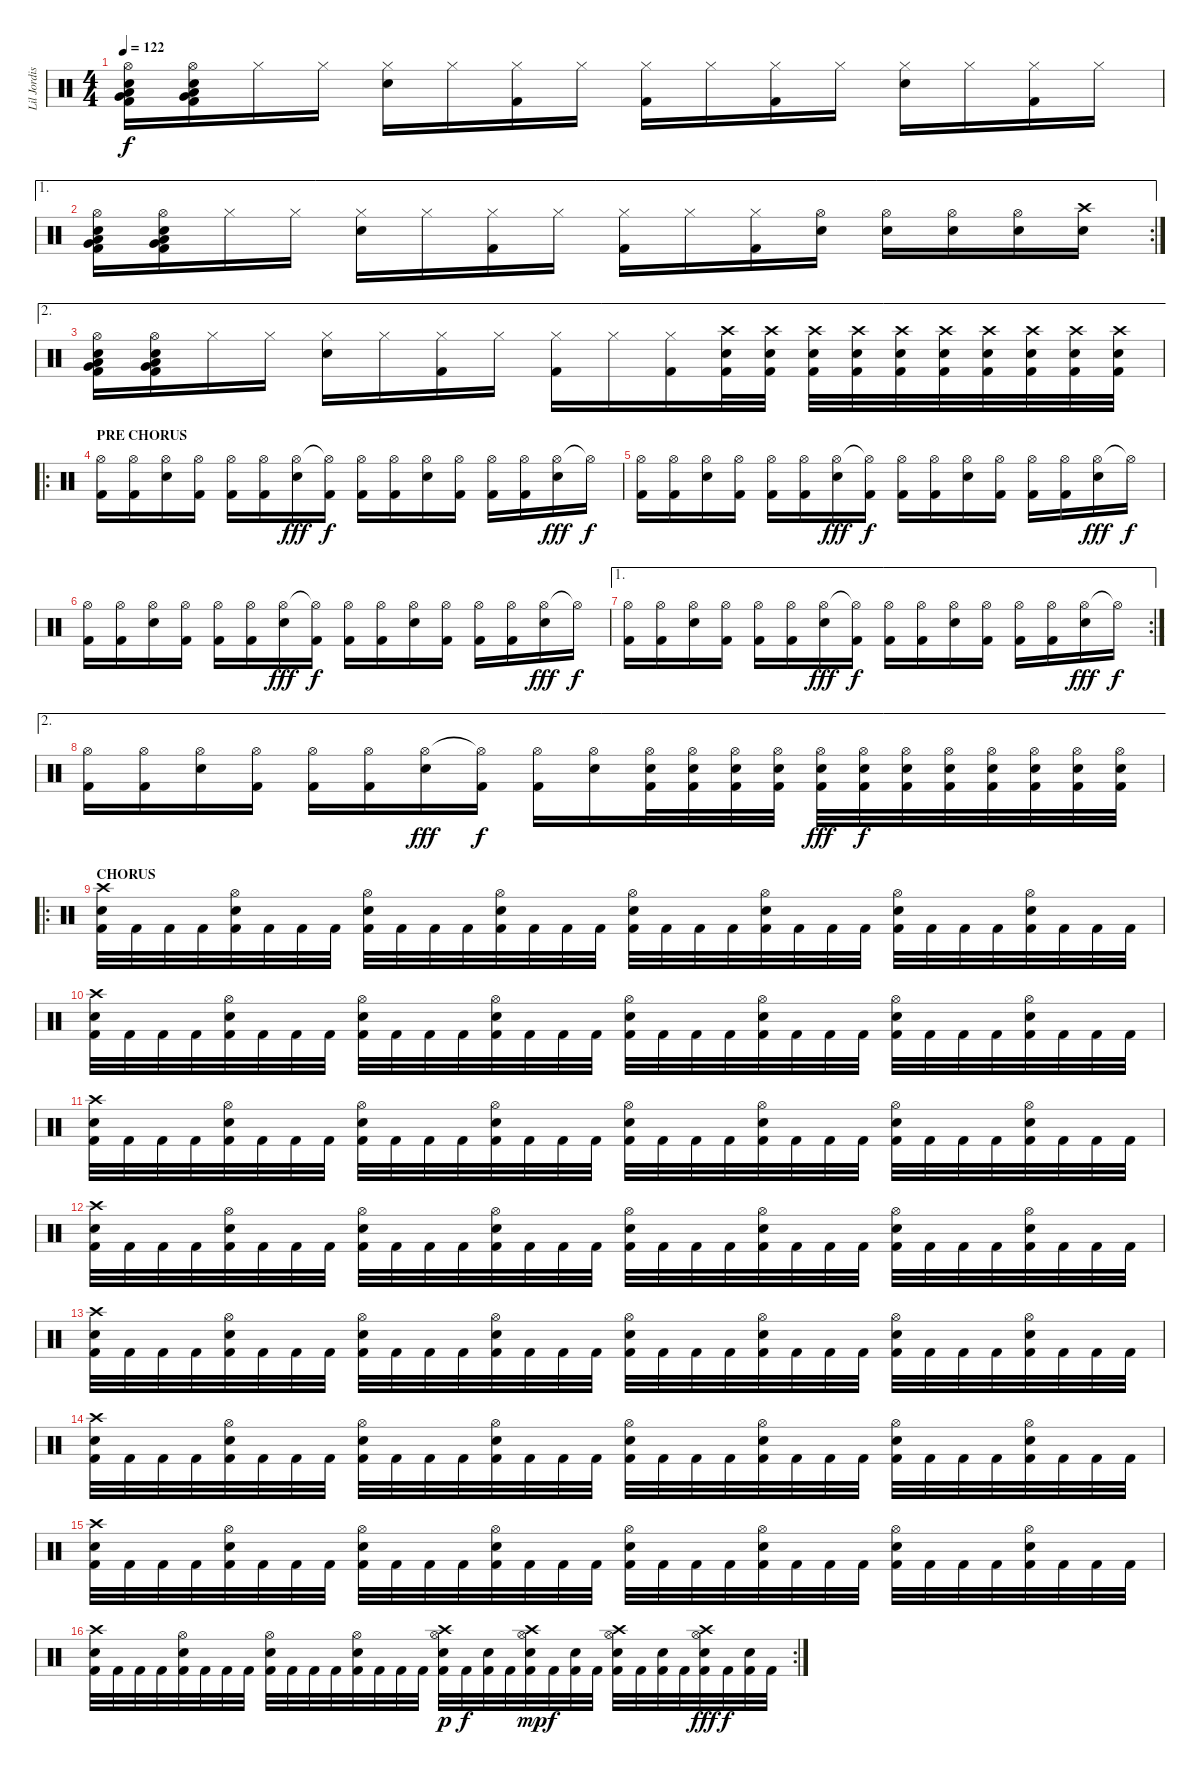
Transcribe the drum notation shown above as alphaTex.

\track ("Lil Jordison" "Lil Jordis") {instrument percussion}
\staff {score}
\articulation defaults
\ts (4 4)
\tempo 122
\clef neutral
\ks c
("Very Low Tom (hit)" "Low Floor Tom (hit)" "Hi-Hat (open)" "Kick (hit) 2" "Electric Snare (hit)").16{dy f} ("Very Low Tom (hit)" "Low Floor Tom (hit)" "Hi-Hat (open)" "Kick (hit) 2" "Electric Snare (hit)").16 "Hi-Hat (closed)".16 "Hi-Hat (closed)".16 ("Hi-Hat (closed)" "Electric Snare (hit)").16 "Hi-Hat (closed)".16 ("Hi-Hat (closed)" "Kick (hit) 2").16 "Hi-Hat (closed)".16 ("Hi-Hat (closed)" "Kick (hit) 2").16 "Hi-Hat (closed)".16 ("Hi-Hat (closed)" "Kick (hit) 2").16 "Hi-Hat (closed)".16 ("Hi-Hat (closed)" "Electric Snare (hit)").16 "Hi-Hat (closed)".16 ("Hi-Hat (closed)" "Kick (hit) 2").16 "Hi-Hat (closed)".16 |
\ae 1
\rc 2
("Very Low Tom (hit)" "Low Floor Tom (hit)" "Hi-Hat (open)" "Kick (hit) 2" "Electric Snare (hit)").16 ("Very Low Tom (hit)" "Low Floor Tom (hit)" "Hi-Hat (open)" "Kick (hit) 2" "Electric Snare (hit)").16 "Hi-Hat (closed)".16 "Hi-Hat (closed)".16 ("Hi-Hat (closed)" "Electric Snare (hit)").16 "Hi-Hat (closed)".16 ("Hi-Hat (closed)" "Kick (hit) 2").16 "Hi-Hat (closed)".16 ("Hi-Hat (closed)" "Kick (hit) 2").16 "Hi-Hat (closed)".16 ("Hi-Hat (closed)" "Kick (hit) 2").16 ("Hi-Hat (open)" "Electric Snare (hit)").16 ("Hi-Hat (open)" "Electric Snare (hit)").16 ("Hi-Hat (open)" "Electric Snare (hit)").16 ("Hi-Hat (open)" "Electric Snare (hit)").16 ("Crash high (hit)" "Electric Snare (hit)").16 |
\ae 2
("Very Low Tom (hit)" "Low Floor Tom (hit)" "Hi-Hat (open)" "Kick (hit) 2" "Electric Snare (hit)").16 ("Very Low Tom (hit)" "Low Floor Tom (hit)" "Hi-Hat (open)" "Kick (hit) 2" "Electric Snare (hit)").16 "Hi-Hat (closed)".16 "Hi-Hat (closed)".16 ("Hi-Hat (closed)" "Electric Snare (hit)").16 "Hi-Hat (closed)".16 ("Hi-Hat (closed)" "Kick (hit) 2").16 "Hi-Hat (closed)".16 ("Hi-Hat (closed)" "Kick (hit) 2").16 "Hi-Hat (closed)".16 ("Hi-Hat (closed)" "Kick (hit) 2").16 ("Crash high (hit)" "Kick (hit) 2" "Electric Snare (hit)").32 ("Crash high (hit)" "Kick (hit) 2" "Electric Snare (hit)").32 ("Crash high (hit)" "Kick (hit) 2" "Electric Snare (hit)").32 ("Crash high (hit)" "Kick (hit) 2" "Electric Snare (hit)").32 ("Crash high (hit)" "Kick (hit) 2" "Electric Snare (hit)").32 ("Crash high (hit)" "Kick (hit) 2" "Electric Snare (hit)").32 ("Crash high (hit)" "Kick (hit) 2" "Electric Snare (hit)").32 ("Crash high (hit)" "Kick (hit) 2" "Electric Snare (hit)").32 ("Crash high (hit)" "Kick (hit) 2" "Electric Snare (hit)").32 ("Crash high (hit)" "Kick (hit) 2" "Electric Snare (hit)").32 |
\ro
\section ("" "PRE CHORUS")
("Hi-Hat (open)" "Kick (hit) 2").16 ("Hi-Hat (open)" "Kick (hit) 2").16 ("Hi-Hat (open)" "Electric Snare (hit)").16 ("Hi-Hat (open)" "Kick (hit) 2").16 ("Hi-Hat (open)" "Kick (hit) 2").16 ("Hi-Hat (open)" "Kick (hit) 2").16 ("Hi-Hat (open)" "Electric Snare (hit)").16{dy fff} ("Hi-Hat (open)"{t} "Kick (hit) 2").16{dy f} ("Hi-Hat (open)" "Kick (hit) 2").16 ("Hi-Hat (open)" "Kick (hit) 2").16 ("Hi-Hat (open)" "Electric Snare (hit)").16 ("Hi-Hat (open)" "Kick (hit) 2").16 ("Hi-Hat (open)" "Kick (hit) 2").16 ("Hi-Hat (open)" "Kick (hit) 2").16 ("Hi-Hat (open)" "Electric Snare (hit)").16{dy fff} "Hi-Hat (open)"{t}.16{dy f} |
("Hi-Hat (open)" "Kick (hit) 2").16 ("Hi-Hat (open)" "Kick (hit) 2").16 ("Hi-Hat (open)" "Electric Snare (hit)").16 ("Hi-Hat (open)" "Kick (hit) 2").16 ("Hi-Hat (open)" "Kick (hit) 2").16 ("Hi-Hat (open)" "Kick (hit) 2").16 ("Hi-Hat (open)" "Electric Snare (hit)").16{dy fff} ("Hi-Hat (open)"{t} "Kick (hit) 2").16{dy f} ("Hi-Hat (open)" "Kick (hit) 2").16 ("Hi-Hat (open)" "Kick (hit) 2").16 ("Hi-Hat (open)" "Electric Snare (hit)").16 ("Hi-Hat (open)" "Kick (hit) 2").16 ("Hi-Hat (open)" "Kick (hit) 2").16 ("Hi-Hat (open)" "Kick (hit) 2").16 ("Hi-Hat (open)" "Electric Snare (hit)").16{dy fff} "Hi-Hat (open)"{t}.16{dy f} |
("Hi-Hat (open)" "Kick (hit) 2").16 ("Hi-Hat (open)" "Kick (hit) 2").16 ("Hi-Hat (open)" "Electric Snare (hit)").16 ("Hi-Hat (open)" "Kick (hit) 2").16 ("Hi-Hat (open)" "Kick (hit) 2").16 ("Hi-Hat (open)" "Kick (hit) 2").16 ("Hi-Hat (open)" "Electric Snare (hit)").16{dy fff} ("Hi-Hat (open)"{t} "Kick (hit) 2").16{dy f} ("Hi-Hat (open)" "Kick (hit) 2").16 ("Hi-Hat (open)" "Kick (hit) 2").16 ("Hi-Hat (open)" "Electric Snare (hit)").16 ("Hi-Hat (open)" "Kick (hit) 2").16 ("Hi-Hat (open)" "Kick (hit) 2").16 ("Hi-Hat (open)" "Kick (hit) 2").16 ("Hi-Hat (open)" "Electric Snare (hit)").16{dy fff} "Hi-Hat (open)"{t}.16{dy f} |
\ae 1
\rc 2
("Hi-Hat (open)" "Kick (hit) 2").16 ("Hi-Hat (open)" "Kick (hit) 2").16 ("Hi-Hat (open)" "Electric Snare (hit)").16 ("Hi-Hat (open)" "Kick (hit) 2").16 ("Hi-Hat (open)" "Kick (hit) 2").16 ("Hi-Hat (open)" "Kick (hit) 2").16 ("Hi-Hat (open)" "Electric Snare (hit)").16{dy fff} ("Hi-Hat (open)"{t} "Kick (hit) 2").16{dy f} ("Hi-Hat (open)" "Kick (hit) 2").16 ("Hi-Hat (open)" "Kick (hit) 2").16 ("Hi-Hat (open)" "Electric Snare (hit)").16 ("Hi-Hat (open)" "Kick (hit) 2").16 ("Hi-Hat (open)" "Kick (hit) 2").16 ("Hi-Hat (open)" "Kick (hit) 2").16 ("Hi-Hat (open)" "Electric Snare (hit)").16{dy fff} "Hi-Hat (open)"{t}.16{dy f} |
\ae 2
("Hi-Hat (open)" "Kick (hit) 2").16 ("Hi-Hat (open)" "Kick (hit) 2").16 ("Hi-Hat (open)" "Electric Snare (hit)").16 ("Hi-Hat (open)" "Kick (hit) 2").16 ("Hi-Hat (open)" "Kick (hit) 2").16 ("Hi-Hat (open)" "Kick (hit) 2").16 ("Hi-Hat (open)" "Electric Snare (hit)").16{dy fff} ("Hi-Hat (open)"{t} "Kick (hit) 2").16{dy f} ("Hi-Hat (open)" "Kick (hit) 2").16 ("Hi-Hat (open)" "Electric Snare (hit)").16 ("Hi-Hat (open)" "Kick (hit) 2" "Electric Snare (hit)").32 ("Hi-Hat (open)" "Kick (hit) 2" "Electric Snare (hit)").32 ("Hi-Hat (open)" "Kick (hit) 2" "Electric Snare (hit)").32 ("Hi-Hat (open)" "Kick (hit) 2" "Electric Snare (hit)").32 ("Hi-Hat (open)" "Kick (hit) 2" "Electric Snare (hit)").32{dy fff} ("Hi-Hat (open)" "Kick (hit) 2" "Electric Snare (hit)").32{dy f} ("Hi-Hat (open)" "Kick (hit) 2" "Electric Snare (hit)").32 ("Hi-Hat (open)" "Kick (hit) 2" "Electric Snare (hit)").32 ("Hi-Hat (open)" "Kick (hit) 2" "Electric Snare (hit)").32 ("Hi-Hat (open)" "Kick (hit) 2" "Electric Snare (hit)").32 ("Hi-Hat (open)" "Kick (hit) 2" "Electric Snare (hit)").32 ("Hi-Hat (open)" "Kick (hit) 2" "Electric Snare (hit)").32 |
\ro
\section ("" "CHORUS")
("Crash high (hit)" "Electric Snare (hit)" "Kick (hit) 2").32 "Kick (hit) 2".32 "Kick (hit) 2".32 "Kick (hit) 2".32 ("Hi-Hat (open)" "Electric Snare (hit)" "Kick (hit) 2").32 "Kick (hit) 2".32 "Kick (hit) 2".32 "Kick (hit) 2".32 ("Hi-Hat (open)" "Electric Snare (hit)" "Kick (hit) 2").32 "Kick (hit) 2".32 "Kick (hit) 2".32 "Kick (hit) 2".32 ("Hi-Hat (open)" "Electric Snare (hit)" "Kick (hit) 2").32 "Kick (hit) 2".32 "Kick (hit) 2".32 "Kick (hit) 2".32 ("Hi-Hat (open)" "Electric Snare (hit)" "Kick (hit) 2").32 "Kick (hit) 2".32 "Kick (hit) 2".32 "Kick (hit) 2".32 ("Hi-Hat (open)" "Electric Snare (hit)" "Kick (hit) 2").32 "Kick (hit) 2".32 "Kick (hit) 2".32 "Kick (hit) 2".32 ("Hi-Hat (open)" "Electric Snare (hit)" "Kick (hit) 2").32 "Kick (hit) 2".32 "Kick (hit) 2".32 "Kick (hit) 2".32 ("Hi-Hat (open)" "Electric Snare (hit)" "Kick (hit) 2").32 "Kick (hit) 2".32 "Kick (hit) 2".32 "Kick (hit) 2".32 |
("Crash high (hit)" "Electric Snare (hit)" "Kick (hit) 2").32 "Kick (hit) 2".32 "Kick (hit) 2".32 "Kick (hit) 2".32 ("Hi-Hat (open)" "Electric Snare (hit)" "Kick (hit) 2").32 "Kick (hit) 2".32 "Kick (hit) 2".32 "Kick (hit) 2".32 ("Hi-Hat (open)" "Electric Snare (hit)" "Kick (hit) 2").32 "Kick (hit) 2".32 "Kick (hit) 2".32 "Kick (hit) 2".32 ("Hi-Hat (open)" "Electric Snare (hit)" "Kick (hit) 2").32 "Kick (hit) 2".32 "Kick (hit) 2".32 "Kick (hit) 2".32 ("Hi-Hat (open)" "Electric Snare (hit)" "Kick (hit) 2").32 "Kick (hit) 2".32 "Kick (hit) 2".32 "Kick (hit) 2".32 ("Hi-Hat (open)" "Electric Snare (hit)" "Kick (hit) 2").32 "Kick (hit) 2".32 "Kick (hit) 2".32 "Kick (hit) 2".32 ("Hi-Hat (open)" "Electric Snare (hit)" "Kick (hit) 2").32 "Kick (hit) 2".32 "Kick (hit) 2".32 "Kick (hit) 2".32 ("Hi-Hat (open)" "Electric Snare (hit)" "Kick (hit) 2").32 "Kick (hit) 2".32 "Kick (hit) 2".32 "Kick (hit) 2".32 |
("Crash high (hit)" "Electric Snare (hit)" "Kick (hit) 2").32 "Kick (hit) 2".32 "Kick (hit) 2".32 "Kick (hit) 2".32 ("Hi-Hat (open)" "Electric Snare (hit)" "Kick (hit) 2").32 "Kick (hit) 2".32 "Kick (hit) 2".32 "Kick (hit) 2".32 ("Hi-Hat (open)" "Electric Snare (hit)" "Kick (hit) 2").32 "Kick (hit) 2".32 "Kick (hit) 2".32 "Kick (hit) 2".32 ("Hi-Hat (open)" "Electric Snare (hit)" "Kick (hit) 2").32 "Kick (hit) 2".32 "Kick (hit) 2".32 "Kick (hit) 2".32 ("Hi-Hat (open)" "Electric Snare (hit)" "Kick (hit) 2").32 "Kick (hit) 2".32 "Kick (hit) 2".32 "Kick (hit) 2".32 ("Hi-Hat (open)" "Electric Snare (hit)" "Kick (hit) 2").32 "Kick (hit) 2".32 "Kick (hit) 2".32 "Kick (hit) 2".32 ("Hi-Hat (open)" "Electric Snare (hit)" "Kick (hit) 2").32 "Kick (hit) 2".32 "Kick (hit) 2".32 "Kick (hit) 2".32 ("Hi-Hat (open)" "Electric Snare (hit)" "Kick (hit) 2").32 "Kick (hit) 2".32 "Kick (hit) 2".32 "Kick (hit) 2".32 |
("Crash high (hit)" "Electric Snare (hit)" "Kick (hit) 2").32 "Kick (hit) 2".32 "Kick (hit) 2".32 "Kick (hit) 2".32 ("Hi-Hat (open)" "Electric Snare (hit)" "Kick (hit) 2").32 "Kick (hit) 2".32 "Kick (hit) 2".32 "Kick (hit) 2".32 ("Hi-Hat (open)" "Electric Snare (hit)" "Kick (hit) 2").32 "Kick (hit) 2".32 "Kick (hit) 2".32 "Kick (hit) 2".32 ("Hi-Hat (open)" "Electric Snare (hit)" "Kick (hit) 2").32 "Kick (hit) 2".32 "Kick (hit) 2".32 "Kick (hit) 2".32 ("Hi-Hat (open)" "Electric Snare (hit)" "Kick (hit) 2").32 "Kick (hit) 2".32 "Kick (hit) 2".32 "Kick (hit) 2".32 ("Hi-Hat (open)" "Electric Snare (hit)" "Kick (hit) 2").32 "Kick (hit) 2".32 "Kick (hit) 2".32 "Kick (hit) 2".32 ("Hi-Hat (open)" "Electric Snare (hit)" "Kick (hit) 2").32 "Kick (hit) 2".32 "Kick (hit) 2".32 "Kick (hit) 2".32 ("Hi-Hat (open)" "Electric Snare (hit)" "Kick (hit) 2").32 "Kick (hit) 2".32 "Kick (hit) 2".32 "Kick (hit) 2".32 |
("Crash high (hit)" "Electric Snare (hit)" "Kick (hit) 2").32 "Kick (hit) 2".32 "Kick (hit) 2".32 "Kick (hit) 2".32 ("Hi-Hat (open)" "Electric Snare (hit)" "Kick (hit) 2").32 "Kick (hit) 2".32 "Kick (hit) 2".32 "Kick (hit) 2".32 ("Hi-Hat (open)" "Electric Snare (hit)" "Kick (hit) 2").32 "Kick (hit) 2".32 "Kick (hit) 2".32 "Kick (hit) 2".32 ("Hi-Hat (open)" "Electric Snare (hit)" "Kick (hit) 2").32 "Kick (hit) 2".32 "Kick (hit) 2".32 "Kick (hit) 2".32 ("Hi-Hat (open)" "Electric Snare (hit)" "Kick (hit) 2").32 "Kick (hit) 2".32 "Kick (hit) 2".32 "Kick (hit) 2".32 ("Hi-Hat (open)" "Electric Snare (hit)" "Kick (hit) 2").32 "Kick (hit) 2".32 "Kick (hit) 2".32 "Kick (hit) 2".32 ("Hi-Hat (open)" "Electric Snare (hit)" "Kick (hit) 2").32 "Kick (hit) 2".32 "Kick (hit) 2".32 "Kick (hit) 2".32 ("Hi-Hat (open)" "Electric Snare (hit)" "Kick (hit) 2").32 "Kick (hit) 2".32 "Kick (hit) 2".32 "Kick (hit) 2".32 |
("Crash high (hit)" "Electric Snare (hit)" "Kick (hit) 2").32 "Kick (hit) 2".32 "Kick (hit) 2".32 "Kick (hit) 2".32 ("Hi-Hat (open)" "Electric Snare (hit)" "Kick (hit) 2").32 "Kick (hit) 2".32 "Kick (hit) 2".32 "Kick (hit) 2".32 ("Hi-Hat (open)" "Electric Snare (hit)" "Kick (hit) 2").32 "Kick (hit) 2".32 "Kick (hit) 2".32 "Kick (hit) 2".32 ("Hi-Hat (open)" "Electric Snare (hit)" "Kick (hit) 2").32 "Kick (hit) 2".32 "Kick (hit) 2".32 "Kick (hit) 2".32 ("Hi-Hat (open)" "Electric Snare (hit)" "Kick (hit) 2").32 "Kick (hit) 2".32 "Kick (hit) 2".32 "Kick (hit) 2".32 ("Hi-Hat (open)" "Electric Snare (hit)" "Kick (hit) 2").32 "Kick (hit) 2".32 "Kick (hit) 2".32 "Kick (hit) 2".32 ("Hi-Hat (open)" "Electric Snare (hit)" "Kick (hit) 2").32 "Kick (hit) 2".32 "Kick (hit) 2".32 "Kick (hit) 2".32 ("Hi-Hat (open)" "Electric Snare (hit)" "Kick (hit) 2").32 "Kick (hit) 2".32 "Kick (hit) 2".32 "Kick (hit) 2".32 |
("Crash high (hit)" "Electric Snare (hit)" "Kick (hit) 2").32 "Kick (hit) 2".32 "Kick (hit) 2".32 "Kick (hit) 2".32 ("Hi-Hat (open)" "Electric Snare (hit)" "Kick (hit) 2").32 "Kick (hit) 2".32 "Kick (hit) 2".32 "Kick (hit) 2".32 ("Hi-Hat (open)" "Electric Snare (hit)" "Kick (hit) 2").32 "Kick (hit) 2".32 "Kick (hit) 2".32 "Kick (hit) 2".32 ("Hi-Hat (open)" "Electric Snare (hit)" "Kick (hit) 2").32 "Kick (hit) 2".32 "Kick (hit) 2".32 "Kick (hit) 2".32 ("Hi-Hat (open)" "Electric Snare (hit)" "Kick (hit) 2").32 "Kick (hit) 2".32 "Kick (hit) 2".32 "Kick (hit) 2".32 ("Hi-Hat (open)" "Electric Snare (hit)" "Kick (hit) 2").32 "Kick (hit) 2".32 "Kick (hit) 2".32 "Kick (hit) 2".32 ("Hi-Hat (open)" "Electric Snare (hit)" "Kick (hit) 2").32 "Kick (hit) 2".32 "Kick (hit) 2".32 "Kick (hit) 2".32 ("Hi-Hat (open)" "Electric Snare (hit)" "Kick (hit) 2").32 "Kick (hit) 2".32 "Kick (hit) 2".32 "Kick (hit) 2".32 |
\rc 2
("Crash high (hit)" "Electric Snare (hit)" "Kick (hit) 2").32 "Kick (hit) 2".32 "Kick (hit) 2".32 "Kick (hit) 2".32 ("Hi-Hat (open)" "Electric Snare (hit)" "Kick (hit) 2").32 "Kick (hit) 2".32 "Kick (hit) 2".32 "Kick (hit) 2".32 ("Hi-Hat (open)" "Electric Snare (hit)" "Kick (hit) 2").32 "Kick (hit) 2".32 "Kick (hit) 2".32 "Kick (hit) 2".32 ("Hi-Hat (open)" "Electric Snare (hit)" "Kick (hit) 2").32 "Kick (hit) 2".32 "Kick (hit) 2".32 "Kick (hit) 2".32 ("Hi-Hat (open)" "Crash high (hit)" "Electric Snare (hit)" "Kick (hit) 2").32{dy p} "Kick (hit) 2".32{dy f} ("Electric Snare (hit)" "Kick (hit) 2").32 "Kick (hit) 2".32 ("Hi-Hat (open)" "Crash high (hit)" "Electric Snare (hit)" "Kick (hit) 2").32{dy mp} "Kick (hit) 2".32{dy f} ("Electric Snare (hit)" "Kick (hit) 2").32 "Kick (hit) 2".32 ("Hi-Hat (open)" "Crash high (hit)" "Electric Snare (hit)" "Kick (hit) 2").32 "Kick (hit) 2".32 ("Electric Snare (hit)" "Kick (hit) 2").32 "Kick (hit) 2".32 ("Hi-Hat (open)" "Crash high (hit)" "Electric Snare (hit)" "Kick (hit) 2").32{dy fff} "Kick (hit) 2".32{dy f} ("Electric Snare (hit)" "Kick (hit) 2").32 "Kick (hit) 2".32
